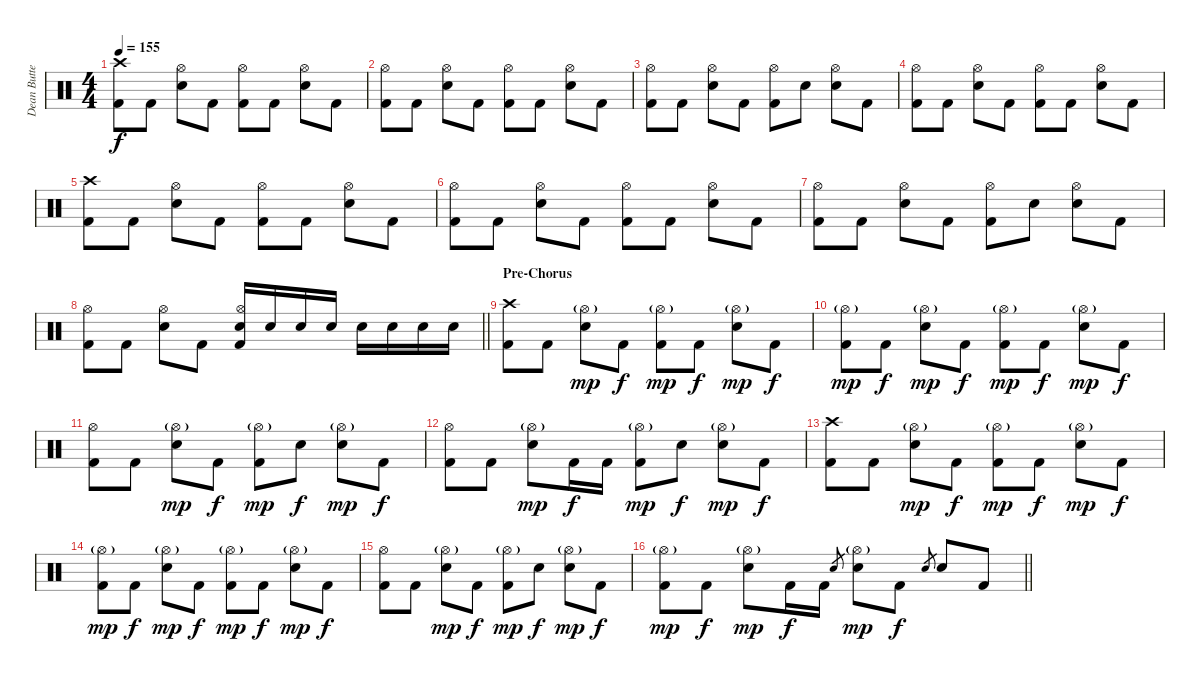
\track ("Dean Butterworth [Drums]" "Dean Butte") {solo instrument percussion}
\staff {score}
\articulation defaults
\ts (4 4)
\tempo 155
\clef neutral
\ks c
("Crash high (hit)" "Kick (hit) 2").8{dy f} "Kick (hit) 2".8 ("Hi-Hat (open)" "Electric Snare (hit)").8 "Kick (hit) 2".8 ("Hi-Hat (open)" "Kick (hit) 2").8 "Kick (hit) 2".8 ("Hi-Hat (open)" "Electric Snare (hit)").8 "Kick (hit) 2".8 |
("Hi-Hat (open)" "Kick (hit) 2").8 "Kick (hit) 2".8 ("Hi-Hat (open)" "Electric Snare (hit)").8 "Kick (hit) 2".8 ("Hi-Hat (open)" "Kick (hit) 2").8 "Kick (hit) 2".8 ("Hi-Hat (open)" "Electric Snare (hit)").8 "Kick (hit) 2".8 |
("Hi-Hat (open)" "Kick (hit) 2").8 "Kick (hit) 2".8 ("Hi-Hat (open)" "Electric Snare (hit)").8 "Kick (hit) 2".8 ("Hi-Hat (open)" "Kick (hit) 2").8 "Electric Snare (hit)".8 ("Hi-Hat (open)" "Electric Snare (hit)").8 "Kick (hit) 2".8 |
("Hi-Hat (open)" "Kick (hit) 2").8 "Kick (hit) 2".8 ("Hi-Hat (open)" "Electric Snare (hit)").8 "Kick (hit) 2".8 ("Hi-Hat (open)" "Kick (hit) 2").8 "Kick (hit) 2".8 ("Hi-Hat (open)" "Electric Snare (hit)").8 "Kick (hit) 2".8 |
("Crash high (hit)" "Kick (hit) 2").8 "Kick (hit) 2".8 ("Hi-Hat (open)" "Electric Snare (hit)").8 "Kick (hit) 2".8 ("Hi-Hat (open)" "Kick (hit) 2").8 "Kick (hit) 2".8 ("Hi-Hat (open)" "Electric Snare (hit)").8 "Kick (hit) 2".8 |
("Hi-Hat (open)" "Kick (hit) 2").8 "Kick (hit) 2".8 ("Hi-Hat (open)" "Electric Snare (hit)").8 "Kick (hit) 2".8 ("Hi-Hat (open)" "Kick (hit) 2").8 "Kick (hit) 2".8 ("Hi-Hat (open)" "Electric Snare (hit)").8 "Kick (hit) 2".8 |
("Hi-Hat (open)" "Kick (hit) 2").8 "Kick (hit) 2".8 ("Hi-Hat (open)" "Electric Snare (hit)").8 "Kick (hit) 2".8 ("Hi-Hat (open)" "Kick (hit) 2").8 "Electric Snare (hit)".8 ("Hi-Hat (open)" "Electric Snare (hit)").8 "Kick (hit) 2".8 |
\barLineRight lightlight
("Hi-Hat (open)" "Kick (hit) 2").8 "Kick (hit) 2".8 ("Hi-Hat (open)" "Electric Snare (hit)").8 "Kick (hit) 2".8 ("Hi-Hat (open)" "Electric Snare (hit)" "Kick (hit) 2").16 "Electric Snare (hit)".16 "Electric Snare (hit)".16 "Electric Snare (hit)".16 "Electric Snare (hit)".16 "Electric Snare (hit)".16 "Electric Snare (hit)".16 "Electric Snare (hit)".16 |
\section ("" "Pre-Chorus")
("Crash high (hit)" "Kick (hit) 2").8 "Kick (hit) 2".8 ("Hi-Hat (open)"{g} "Electric Snare (hit)").8{dy mp} "Kick (hit) 2".8{dy f} ("Hi-Hat (open)"{g} "Kick (hit) 2").8{dy mp} "Kick (hit) 2".8{dy f} ("Hi-Hat (open)"{g} "Electric Snare (hit)").8{dy mp} "Kick (hit) 2".8{dy f} |
("Hi-Hat (open)"{g} "Kick (hit) 2").8{dy mp} "Kick (hit) 2".8{dy f} ("Hi-Hat (open)"{g} "Electric Snare (hit)").8{dy mp} "Kick (hit) 2".8{dy f} ("Hi-Hat (open)"{g} "Kick (hit) 2").8{dy mp} "Kick (hit) 2".8{dy f} ("Hi-Hat (open)"{g} "Electric Snare (hit)").8{dy mp} "Kick (hit) 2".8{dy f} |
("Hi-Hat (open)" "Kick (hit) 2").8 "Kick (hit) 2".8 ("Hi-Hat (open)"{g} "Electric Snare (hit)").8{dy mp} "Kick (hit) 2".8{dy f} ("Hi-Hat (open)"{g} "Kick (hit) 2").8{dy mp} "Electric Snare (hit)".8{dy f} ("Hi-Hat (open)"{g} "Electric Snare (hit)").8{dy mp} "Kick (hit) 2".8{dy f} |
("Hi-Hat (open)" "Kick (hit) 2").8 "Kick (hit) 2".8 ("Hi-Hat (open)"{g} "Electric Snare (hit)").8{dy mp} "Kick (hit) 2".16{dy f} "Kick (hit) 2".16 ("Hi-Hat (open)"{g} "Kick (hit) 2").8{dy mp} "Electric Snare (hit)".8{dy f} ("Hi-Hat (open)"{g} "Electric Snare (hit)").8{dy mp} "Kick (hit) 2".8{dy f} |
("Crash high (hit)" "Kick (hit) 2").8 "Kick (hit) 2".8 ("Hi-Hat (open)"{g} "Electric Snare (hit)").8{dy mp} "Kick (hit) 2".8{dy f} ("Hi-Hat (open)"{g} "Kick (hit) 2").8{dy mp} "Kick (hit) 2".8{dy f} ("Hi-Hat (open)"{g} "Electric Snare (hit)").8{dy mp} "Kick (hit) 2".8{dy f} |
("Hi-Hat (open)"{g} "Kick (hit) 2").8{dy mp} "Kick (hit) 2".8{dy f} ("Hi-Hat (open)"{g} "Electric Snare (hit)").8{dy mp} "Kick (hit) 2".8{dy f} ("Hi-Hat (open)"{g} "Kick (hit) 2").8{dy mp} "Kick (hit) 2".8{dy f} ("Hi-Hat (open)"{g} "Electric Snare (hit)").8{dy mp} "Kick (hit) 2".8{dy f} |
("Hi-Hat (open)" "Kick (hit) 2").8 "Kick (hit) 2".8 ("Hi-Hat (open)"{g} "Electric Snare (hit)").8{dy mp} "Kick (hit) 2".8{dy f} ("Hi-Hat (open)"{g} "Kick (hit) 2").8{dy mp} "Electric Snare (hit)".8{dy f} ("Hi-Hat (open)"{g} "Electric Snare (hit)").8{dy mp} "Kick (hit) 2".8{dy f} |
\barLineRight lightlight
("Hi-Hat (open)"{g} "Kick (hit) 2").8{dy mp} "Kick (hit) 2".8{dy f} ("Hi-Hat (open)"{g} "Electric Snare (hit)").8{dy mp} "Kick (hit) 2".16{dy f} "Kick (hit) 2".16 "Electric Snare (hit)".8{gr} ("Hi-Hat (open)"{g} "Electric Snare (hit)").8{dy mp} "Kick (hit) 2".8{dy f} "Electric Snare (hit)".8{gr} "Electric Snare (hit)".8 "Kick (hit) 2".8
